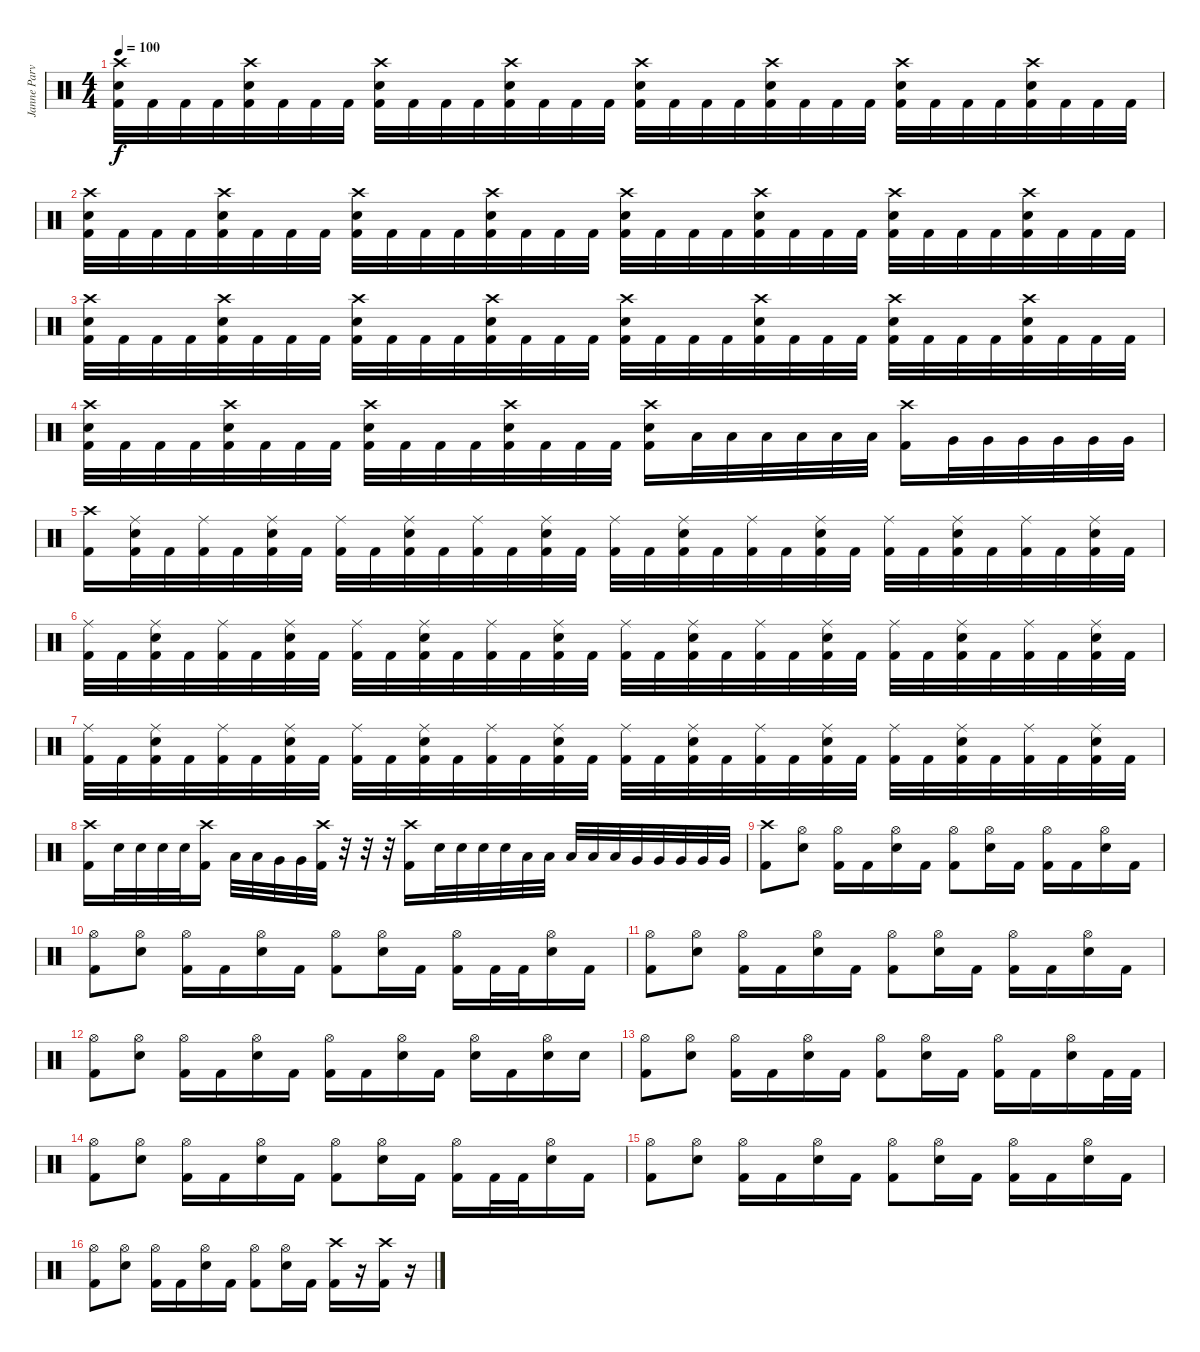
\track ("Janne Parviainen" "Janne Parv") {instrument percussion}
\staff {score}
\articulation defaults
\ts (4 4)
\tempo 100
\clef neutral
\ks c
("Crash high (hit)" "Electric Snare (hit)" "Kick (hit) 2").32{dy f} "Kick (hit) 2".32 "Kick (hit) 2".32 "Kick (hit) 2".32 ("Crash high (hit)" "Electric Snare (hit)" "Kick (hit) 2").32 "Kick (hit) 2".32 "Kick (hit) 2".32 "Kick (hit) 2".32 ("Crash high (hit)" "Electric Snare (hit)" "Kick (hit) 2").32 "Kick (hit) 2".32 "Kick (hit) 2".32 "Kick (hit) 2".32 ("Crash high (hit)" "Electric Snare (hit)" "Kick (hit) 2").32 "Kick (hit) 2".32 "Kick (hit) 2".32 "Kick (hit) 2".32 ("Crash high (hit)" "Electric Snare (hit)" "Kick (hit) 2").32 "Kick (hit) 2".32 "Kick (hit) 2".32 "Kick (hit) 2".32 ("Crash high (hit)" "Electric Snare (hit)" "Kick (hit) 2").32 "Kick (hit) 2".32 "Kick (hit) 2".32 "Kick (hit) 2".32 ("Crash high (hit)" "Electric Snare (hit)" "Kick (hit) 2").32 "Kick (hit) 2".32 "Kick (hit) 2".32 "Kick (hit) 2".32 ("Crash high (hit)" "Electric Snare (hit)" "Kick (hit) 2").32 "Kick (hit) 2".32 "Kick (hit) 2".32 "Kick (hit) 2".32 |
("Crash high (hit)" "Electric Snare (hit)" "Kick (hit) 2").32 "Kick (hit) 2".32 "Kick (hit) 2".32 "Kick (hit) 2".32 ("Crash high (hit)" "Electric Snare (hit)" "Kick (hit) 2").32 "Kick (hit) 2".32 "Kick (hit) 2".32 "Kick (hit) 2".32 ("Crash high (hit)" "Electric Snare (hit)" "Kick (hit) 2").32 "Kick (hit) 2".32 "Kick (hit) 2".32 "Kick (hit) 2".32 ("Crash high (hit)" "Electric Snare (hit)" "Kick (hit) 2").32 "Kick (hit) 2".32 "Kick (hit) 2".32 "Kick (hit) 2".32 ("Crash high (hit)" "Electric Snare (hit)" "Kick (hit) 2").32 "Kick (hit) 2".32 "Kick (hit) 2".32 "Kick (hit) 2".32 ("Crash high (hit)" "Electric Snare (hit)" "Kick (hit) 2").32 "Kick (hit) 2".32 "Kick (hit) 2".32 "Kick (hit) 2".32 ("Crash high (hit)" "Electric Snare (hit)" "Kick (hit) 2").32 "Kick (hit) 2".32 "Kick (hit) 2".32 "Kick (hit) 2".32 ("Crash high (hit)" "Electric Snare (hit)" "Kick (hit) 2").32 "Kick (hit) 2".32 "Kick (hit) 2".32 "Kick (hit) 2".32 |
("Crash high (hit)" "Electric Snare (hit)" "Kick (hit) 2").32 "Kick (hit) 2".32 "Kick (hit) 2".32 "Kick (hit) 2".32 ("Crash high (hit)" "Electric Snare (hit)" "Kick (hit) 2").32 "Kick (hit) 2".32 "Kick (hit) 2".32 "Kick (hit) 2".32 ("Crash high (hit)" "Electric Snare (hit)" "Kick (hit) 2").32 "Kick (hit) 2".32 "Kick (hit) 2".32 "Kick (hit) 2".32 ("Crash high (hit)" "Electric Snare (hit)" "Kick (hit) 2").32 "Kick (hit) 2".32 "Kick (hit) 2".32 "Kick (hit) 2".32 ("Crash high (hit)" "Electric Snare (hit)" "Kick (hit) 2").32 "Kick (hit) 2".32 "Kick (hit) 2".32 "Kick (hit) 2".32 ("Crash high (hit)" "Electric Snare (hit)" "Kick (hit) 2").32 "Kick (hit) 2".32 "Kick (hit) 2".32 "Kick (hit) 2".32 ("Crash high (hit)" "Electric Snare (hit)" "Kick (hit) 2").32 "Kick (hit) 2".32 "Kick (hit) 2".32 "Kick (hit) 2".32 ("Crash high (hit)" "Electric Snare (hit)" "Kick (hit) 2").32 "Kick (hit) 2".32 "Kick (hit) 2".32 "Kick (hit) 2".32 |
("Crash high (hit)" "Electric Snare (hit)" "Kick (hit) 2").32 "Kick (hit) 2".32 "Kick (hit) 2".32 "Kick (hit) 2".32 ("Crash high (hit)" "Electric Snare (hit)" "Kick (hit) 2").32 "Kick (hit) 2".32 "Kick (hit) 2".32 "Kick (hit) 2".32 ("Crash high (hit)" "Electric Snare (hit)" "Kick (hit) 2").32 "Kick (hit) 2".32 "Kick (hit) 2".32 "Kick (hit) 2".32 ("Crash high (hit)" "Electric Snare (hit)" "Kick (hit) 2").32 "Kick (hit) 2".32 "Kick (hit) 2".32 "Kick (hit) 2".32 ("Crash high (hit)" "Electric Snare (hit)" "Kick (hit) 2").16 "Low Tom (hit)".32 "Low Tom (hit)".32 "Low Tom (hit)".32 "Low Tom (hit)".32 "Low Tom (hit)".32 "Low Tom (hit)".32 ("Crash high (hit)" "Kick (hit) 2").16 "Very Low Tom (hit)".32 "Very Low Tom (hit)".32 "Very Low Tom (hit)".32 "Very Low Tom (hit)".32 "Very Low Tom (hit)".32 "Very Low Tom (hit)".32 |
("Crash high (hit)" "Kick (hit) 2").16 ("Ride (middle)" "Electric Snare (hit)" "Kick (hit) 2").32 "Kick (hit) 2".32 ("Ride (middle)" "Kick (hit) 2").32 "Kick (hit) 2".32 ("Ride (middle)" "Electric Snare (hit)" "Kick (hit) 2").32 "Kick (hit) 2".32 ("Ride (middle)" "Kick (hit) 2").32 "Kick (hit) 2".32 ("Ride (middle)" "Electric Snare (hit)" "Kick (hit) 2").32 "Kick (hit) 2".32 ("Ride (middle)" "Kick (hit) 2").32 "Kick (hit) 2".32 ("Ride (middle)" "Electric Snare (hit)" "Kick (hit) 2").32 "Kick (hit) 2".32 ("Ride (middle)" "Kick (hit) 2").32 "Kick (hit) 2".32 ("Ride (middle)" "Electric Snare (hit)" "Kick (hit) 2").32 "Kick (hit) 2".32 ("Ride (middle)" "Kick (hit) 2").32 "Kick (hit) 2".32 ("Ride (middle)" "Electric Snare (hit)" "Kick (hit) 2").32 "Kick (hit) 2".32 ("Ride (middle)" "Kick (hit) 2").32 "Kick (hit) 2".32 ("Ride (middle)" "Electric Snare (hit)" "Kick (hit) 2").32 "Kick (hit) 2".32 ("Ride (middle)" "Kick (hit) 2").32 "Kick (hit) 2".32 ("Ride (middle)" "Electric Snare (hit)" "Kick (hit) 2").32 "Kick (hit) 2".32 |
("Ride (middle)" "Kick (hit) 2").32 "Kick (hit) 2".32 ("Ride (middle)" "Electric Snare (hit)" "Kick (hit) 2").32 "Kick (hit) 2".32 ("Ride (middle)" "Kick (hit) 2").32 "Kick (hit) 2".32 ("Ride (middle)" "Electric Snare (hit)" "Kick (hit) 2").32 "Kick (hit) 2".32 ("Ride (middle)" "Kick (hit) 2").32 "Kick (hit) 2".32 ("Ride (middle)" "Electric Snare (hit)" "Kick (hit) 2").32 "Kick (hit) 2".32 ("Ride (middle)" "Kick (hit) 2").32 "Kick (hit) 2".32 ("Ride (middle)" "Electric Snare (hit)" "Kick (hit) 2").32 "Kick (hit) 2".32 ("Ride (middle)" "Kick (hit) 2").32 "Kick (hit) 2".32 ("Ride (middle)" "Electric Snare (hit)" "Kick (hit) 2").32 "Kick (hit) 2".32 ("Ride (middle)" "Kick (hit) 2").32 "Kick (hit) 2".32 ("Ride (middle)" "Electric Snare (hit)" "Kick (hit) 2").32 "Kick (hit) 2".32 ("Ride (middle)" "Kick (hit) 2").32 "Kick (hit) 2".32 ("Ride (middle)" "Electric Snare (hit)" "Kick (hit) 2").32 "Kick (hit) 2".32 ("Ride (middle)" "Kick (hit) 2").32 "Kick (hit) 2".32 ("Ride (middle)" "Electric Snare (hit)" "Kick (hit) 2").32 "Kick (hit) 2".32 |
("Ride (middle)" "Kick (hit) 2").32 "Kick (hit) 2".32 ("Ride (middle)" "Electric Snare (hit)" "Kick (hit) 2").32 "Kick (hit) 2".32 ("Ride (middle)" "Kick (hit) 2").32 "Kick (hit) 2".32 ("Ride (middle)" "Electric Snare (hit)" "Kick (hit) 2").32 "Kick (hit) 2".32 ("Ride (middle)" "Kick (hit) 2").32 "Kick (hit) 2".32 ("Ride (middle)" "Electric Snare (hit)" "Kick (hit) 2").32 "Kick (hit) 2".32 ("Ride (middle)" "Kick (hit) 2").32 "Kick (hit) 2".32 ("Ride (middle)" "Electric Snare (hit)" "Kick (hit) 2").32 "Kick (hit) 2".32 ("Ride (middle)" "Kick (hit) 2").32 "Kick (hit) 2".32 ("Ride (middle)" "Electric Snare (hit)" "Kick (hit) 2").32 "Kick (hit) 2".32 ("Ride (middle)" "Kick (hit) 2").32 "Kick (hit) 2".32 ("Ride (middle)" "Electric Snare (hit)" "Kick (hit) 2").32 "Kick (hit) 2".32 ("Ride (middle)" "Kick (hit) 2").32 "Kick (hit) 2".32 ("Ride (middle)" "Electric Snare (hit)" "Kick (hit) 2").32 "Kick (hit) 2".32 ("Ride (middle)" "Kick (hit) 2").32 "Kick (hit) 2".32 ("Ride (middle)" "Electric Snare (hit)" "Kick (hit) 2").32 "Kick (hit) 2".32 |
("Crash high (hit)" "Kick (hit) 2").16 "Electric Snare (hit)".32 "Electric Snare (hit)".32 "Electric Snare (hit)".32 "Electric Snare (hit)".32 ("Crash high (hit)" "Kick (hit) 2").16 "Low Tom (hit)".32 "Low Tom (hit)".32 "Very Low Tom (hit)".32 "Very Low Tom (hit)".32 ("Crash high (hit)" "Kick (hit) 2").32 r.32 r.32 r.32 ("Crash high (hit)" "Kick (hit) 2").16 "Electric Snare (hit)".32 "Electric Snare (hit)".32 "Electric Snare (hit)".32 "Electric Snare (hit)".32 "Low Tom (hit)".32 "Low Tom (hit)".32 "Low Tom (hit)".32 "Low Tom (hit)".32 "Low Tom (hit)".32 "Very Low Tom (hit)".32 "Very Low Tom (hit)".32 "Very Low Tom (hit)".32 "Very Low Tom (hit)".32 "Very Low Tom (hit)".32 |
("Crash high (hit)" "Kick (hit) 2").8 ("Hi-Hat (open)" "Electric Snare (hit)").8 ("Hi-Hat (open)" "Kick (hit) 2").16 "Kick (hit) 2".16 ("Hi-Hat (open)" "Electric Snare (hit)").16 "Kick (hit) 2".16 ("Hi-Hat (open)" "Kick (hit) 2").8 ("Hi-Hat (open)" "Electric Snare (hit)").16 "Kick (hit) 2".16 ("Hi-Hat (open)" "Kick (hit) 2").16 "Kick (hit) 2".16 ("Hi-Hat (open)" "Electric Snare (hit)").16 "Kick (hit) 2".16 |
("Hi-Hat (open)" "Kick (hit) 2").8 ("Hi-Hat (open)" "Electric Snare (hit)").8 ("Hi-Hat (open)" "Kick (hit) 2").16 "Kick (hit) 2".16 ("Hi-Hat (open)" "Electric Snare (hit)").16 "Kick (hit) 2".16 ("Hi-Hat (open)" "Kick (hit) 2").8 ("Hi-Hat (open)" "Electric Snare (hit)").16 "Kick (hit) 2".16 ("Hi-Hat (open)" "Kick (hit) 2").16 "Kick (hit) 2".32 "Kick (hit) 2".32 ("Hi-Hat (open)" "Electric Snare (hit)").16 "Kick (hit) 2".16 |
("Hi-Hat (open)" "Kick (hit) 2").8 ("Hi-Hat (open)" "Electric Snare (hit)").8 ("Hi-Hat (open)" "Kick (hit) 2").16 "Kick (hit) 2".16 ("Hi-Hat (open)" "Electric Snare (hit)").16 "Kick (hit) 2".16 ("Hi-Hat (open)" "Kick (hit) 2").8 ("Hi-Hat (open)" "Electric Snare (hit)").16 "Kick (hit) 2".16 ("Hi-Hat (open)" "Kick (hit) 2").16 "Kick (hit) 2".16 ("Hi-Hat (open)" "Electric Snare (hit)").16 "Kick (hit) 2".16 |
("Hi-Hat (open)" "Kick (hit) 2").8 ("Hi-Hat (open)" "Electric Snare (hit)").8 ("Hi-Hat (open)" "Kick (hit) 2").16 "Kick (hit) 2".16 ("Hi-Hat (open)" "Electric Snare (hit)").16 "Kick (hit) 2".16 ("Hi-Hat (open)" "Kick (hit) 2").16 "Kick (hit) 2".16 ("Hi-Hat (open)" "Electric Snare (hit)").16 "Kick (hit) 2".16 ("Hi-Hat (open)" "Electric Snare (hit)").16 "Kick (hit) 2".16 ("Hi-Hat (open)" "Electric Snare (hit)").16 "Electric Snare (hit)".16 |
("Hi-Hat (open)" "Kick (hit) 2").8 ("Hi-Hat (open)" "Electric Snare (hit)").8 ("Hi-Hat (open)" "Kick (hit) 2").16 "Kick (hit) 2".16 ("Hi-Hat (open)" "Electric Snare (hit)").16 "Kick (hit) 2".16 ("Hi-Hat (open)" "Kick (hit) 2").8 ("Hi-Hat (open)" "Electric Snare (hit)").16 "Kick (hit) 2".16 ("Hi-Hat (open)" "Kick (hit) 2").16 "Kick (hit) 2".16 ("Hi-Hat (open)" "Electric Snare (hit)").16 "Kick (hit) 2".32 "Kick (hit) 2".32 |
("Hi-Hat (open)" "Kick (hit) 2").8 ("Hi-Hat (open)" "Electric Snare (hit)").8 ("Hi-Hat (open)" "Kick (hit) 2").16 "Kick (hit) 2".16 ("Hi-Hat (open)" "Electric Snare (hit)").16 "Kick (hit) 2".16 ("Hi-Hat (open)" "Kick (hit) 2").8 ("Hi-Hat (open)" "Electric Snare (hit)").16 "Kick (hit) 2".16 ("Hi-Hat (open)" "Kick (hit) 2").16 "Kick (hit) 2".32 "Kick (hit) 2".32 ("Hi-Hat (open)" "Electric Snare (hit)").16 "Kick (hit) 2".16 |
("Hi-Hat (open)" "Kick (hit) 2").8 ("Hi-Hat (open)" "Electric Snare (hit)").8 ("Hi-Hat (open)" "Kick (hit) 2").16 "Kick (hit) 2".16 ("Hi-Hat (open)" "Electric Snare (hit)").16 "Kick (hit) 2".16 ("Hi-Hat (open)" "Kick (hit) 2").8 ("Hi-Hat (open)" "Electric Snare (hit)").16 "Kick (hit) 2".16 ("Hi-Hat (open)" "Kick (hit) 2").16 "Kick (hit) 2".16 ("Hi-Hat (open)" "Electric Snare (hit)").16 "Kick (hit) 2".16 |
("Hi-Hat (open)" "Kick (hit) 2").8 ("Hi-Hat (open)" "Electric Snare (hit)").8 ("Hi-Hat (open)" "Kick (hit) 2").16 "Kick (hit) 2".16 ("Hi-Hat (open)" "Electric Snare (hit)").16 "Kick (hit) 2".16 ("Hi-Hat (open)" "Kick (hit) 2").8 ("Hi-Hat (open)" "Electric Snare (hit)").16 "Kick (hit) 2".16 ("Crash high (hit)" "Kick (hit) 2").16 r.16{volume 0} ("Crash high (hit)" "Kick (hit) 2").16{volume 13} r.16{volume 0}
